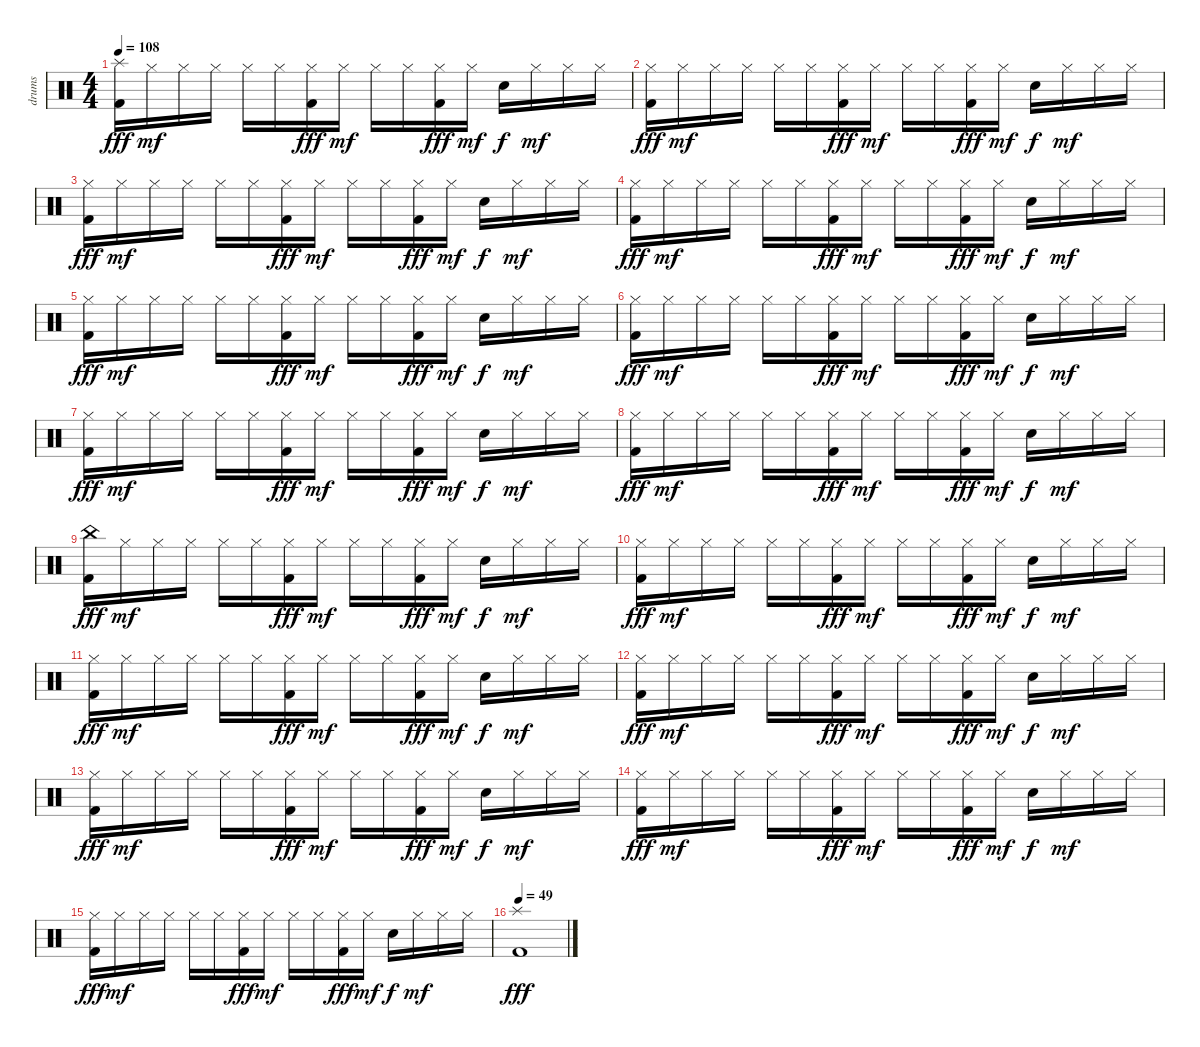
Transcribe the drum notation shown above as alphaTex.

\track ("drums" "drums") {instrument percussion}
\staff {score}
\articulation defaults
\ts (4 4)
\tempo 108
\clef neutral
\ks c
("Splash (hit)" "Kick (hit) 2").16{dy fff} "Hi-Hat (closed)".16{dy mf} "Hi-Hat (closed)".16 "Hi-Hat (closed)".16 "Hi-Hat (closed)".16 "Hi-Hat (closed)".16 ("Hi-Hat (closed)" "Kick (hit) 2").16{dy fff} "Hi-Hat (closed)".16{dy mf} "Hi-Hat (closed)".16 "Hi-Hat (closed)".16 ("Hi-Hat (closed)" "Kick (hit) 2").16{dy fff} "Hi-Hat (closed)".16{dy mf} "Snare (hit) 2".16{dy f} "Hi-Hat (closed)".16{dy mf} "Hi-Hat (closed)".16 "Hi-Hat (closed)".16 |
("Hi-Hat (closed)" "Kick (hit) 2").16{dy fff} "Hi-Hat (closed)".16{dy mf} "Hi-Hat (closed)".16 "Hi-Hat (closed)".16 "Hi-Hat (closed)".16 "Hi-Hat (closed)".16 ("Hi-Hat (closed)" "Kick (hit) 2").16{dy fff} "Hi-Hat (closed)".16{dy mf} "Hi-Hat (closed)".16 "Hi-Hat (closed)".16 ("Hi-Hat (closed)" "Kick (hit) 2").16{dy fff} "Hi-Hat (closed)".16{dy mf} "Snare (hit) 2".16{dy f} "Hi-Hat (closed)".16{dy mf} "Hi-Hat (closed)".16 "Hi-Hat (closed)".16 |
("Hi-Hat (closed)" "Kick (hit) 2").16{dy fff} "Hi-Hat (closed)".16{dy mf} "Hi-Hat (closed)".16 "Hi-Hat (closed)".16 "Hi-Hat (closed)".16 "Hi-Hat (closed)".16 ("Hi-Hat (closed)" "Kick (hit) 2").16{dy fff} "Hi-Hat (closed)".16{dy mf} "Hi-Hat (closed)".16 "Hi-Hat (closed)".16 ("Hi-Hat (closed)" "Kick (hit) 2").16{dy fff} "Hi-Hat (closed)".16{dy mf} "Snare (hit) 2".16{dy f} "Hi-Hat (closed)".16{dy mf} "Hi-Hat (closed)".16 "Hi-Hat (closed)".16 |
("Hi-Hat (closed)" "Kick (hit) 2").16{dy fff} "Hi-Hat (closed)".16{dy mf} "Hi-Hat (closed)".16 "Hi-Hat (closed)".16 "Hi-Hat (closed)".16 "Hi-Hat (closed)".16 ("Hi-Hat (closed)" "Kick (hit) 2").16{dy fff} "Hi-Hat (closed)".16{dy mf} "Hi-Hat (closed)".16 "Hi-Hat (closed)".16 ("Hi-Hat (closed)" "Kick (hit) 2").16{dy fff} "Hi-Hat (closed)".16{dy mf} "Snare (hit) 2".16{dy f} "Hi-Hat (closed)".16{dy mf} "Hi-Hat (closed)".16 "Hi-Hat (closed)".16 |
("Hi-Hat (closed)" "Kick (hit) 2").16{dy fff} "Hi-Hat (closed)".16{dy mf} "Hi-Hat (closed)".16 "Hi-Hat (closed)".16 "Hi-Hat (closed)".16 "Hi-Hat (closed)".16 ("Hi-Hat (closed)" "Kick (hit) 2").16{dy fff} "Hi-Hat (closed)".16{dy mf} "Hi-Hat (closed)".16 "Hi-Hat (closed)".16 ("Hi-Hat (closed)" "Kick (hit) 2").16{dy fff} "Hi-Hat (closed)".16{dy mf} "Snare (hit) 2".16{dy f} "Hi-Hat (closed)".16{dy mf} "Hi-Hat (closed)".16 "Hi-Hat (closed)".16 |
("Hi-Hat (closed)" "Kick (hit) 2").16{dy fff} "Hi-Hat (closed)".16{dy mf} "Hi-Hat (closed)".16 "Hi-Hat (closed)".16 "Hi-Hat (closed)".16 "Hi-Hat (closed)".16 ("Hi-Hat (closed)" "Kick (hit) 2").16{dy fff} "Hi-Hat (closed)".16{dy mf} "Hi-Hat (closed)".16 "Hi-Hat (closed)".16 ("Hi-Hat (closed)" "Kick (hit) 2").16{dy fff} "Hi-Hat (closed)".16{dy mf} "Snare (hit) 2".16{dy f} "Hi-Hat (closed)".16{dy mf} "Hi-Hat (closed)".16 "Hi-Hat (closed)".16 |
("Hi-Hat (closed)" "Kick (hit) 2").16{dy fff} "Hi-Hat (closed)".16{dy mf} "Hi-Hat (closed)".16 "Hi-Hat (closed)".16 "Hi-Hat (closed)".16 "Hi-Hat (closed)".16 ("Hi-Hat (closed)" "Kick (hit) 2").16{dy fff} "Hi-Hat (closed)".16{dy mf} "Hi-Hat (closed)".16 "Hi-Hat (closed)".16 ("Hi-Hat (closed)" "Kick (hit) 2").16{dy fff} "Hi-Hat (closed)".16{dy mf} "Snare (hit) 2".16{dy f} "Hi-Hat (closed)".16{dy mf} "Hi-Hat (closed)".16 "Hi-Hat (closed)".16 |
("Hi-Hat (closed)" "Kick (hit) 2").16{dy fff} "Hi-Hat (closed)".16{dy mf} "Hi-Hat (closed)".16 "Hi-Hat (closed)".16 "Hi-Hat (closed)".16 "Hi-Hat (closed)".16 ("Hi-Hat (closed)" "Kick (hit) 2").16{dy fff} "Hi-Hat (closed)".16{dy mf} "Hi-Hat (closed)".16 "Hi-Hat (closed)".16 ("Hi-Hat (closed)" "Kick (hit) 2").16{dy fff} "Hi-Hat (closed)".16{dy mf} "Snare (hit) 2".16{dy f} "Hi-Hat (closed)".16{dy mf} "Hi-Hat (closed)".16 "Hi-Hat (closed)".16 |
("China (hit)" "Kick (hit) 2").16{dy fff} "Hi-Hat (closed)".16{dy mf} "Hi-Hat (closed)".16 "Hi-Hat (closed)".16 "Hi-Hat (closed)".16 "Hi-Hat (closed)".16 ("Hi-Hat (closed)" "Kick (hit) 2").16{dy fff} "Hi-Hat (closed)".16{dy mf} "Hi-Hat (closed)".16 "Hi-Hat (closed)".16 ("Hi-Hat (closed)" "Kick (hit) 2").16{dy fff} "Hi-Hat (closed)".16{dy mf} "Snare (hit) 2".16{dy f} "Hi-Hat (closed)".16{dy mf} "Hi-Hat (closed)".16 "Hi-Hat (closed)".16 |
("Hi-Hat (closed)" "Kick (hit) 2").16{dy fff} "Hi-Hat (closed)".16{dy mf} "Hi-Hat (closed)".16 "Hi-Hat (closed)".16 "Hi-Hat (closed)".16 "Hi-Hat (closed)".16 ("Hi-Hat (closed)" "Kick (hit) 2").16{dy fff} "Hi-Hat (closed)".16{dy mf} "Hi-Hat (closed)".16 "Hi-Hat (closed)".16 ("Hi-Hat (closed)" "Kick (hit) 2").16{dy fff} "Hi-Hat (closed)".16{dy mf} "Snare (hit) 2".16{dy f} "Hi-Hat (closed)".16{dy mf} "Hi-Hat (closed)".16 "Hi-Hat (closed)".16 |
("Hi-Hat (closed)" "Kick (hit) 2").16{dy fff} "Hi-Hat (closed)".16{dy mf} "Hi-Hat (closed)".16 "Hi-Hat (closed)".16 "Hi-Hat (closed)".16 "Hi-Hat (closed)".16 ("Hi-Hat (closed)" "Kick (hit) 2").16{dy fff} "Hi-Hat (closed)".16{dy mf} "Hi-Hat (closed)".16 "Hi-Hat (closed)".16 ("Hi-Hat (closed)" "Kick (hit) 2").16{dy fff} "Hi-Hat (closed)".16{dy mf} "Snare (hit) 2".16{dy f} "Hi-Hat (closed)".16{dy mf} "Hi-Hat (closed)".16 "Hi-Hat (closed)".16 |
("Hi-Hat (closed)" "Kick (hit) 2").16{dy fff} "Hi-Hat (closed)".16{dy mf} "Hi-Hat (closed)".16 "Hi-Hat (closed)".16 "Hi-Hat (closed)".16 "Hi-Hat (closed)".16 ("Hi-Hat (closed)" "Kick (hit) 2").16{dy fff} "Hi-Hat (closed)".16{dy mf} "Hi-Hat (closed)".16 "Hi-Hat (closed)".16 ("Hi-Hat (closed)" "Kick (hit) 2").16{dy fff} "Hi-Hat (closed)".16{dy mf} "Snare (hit) 2".16{dy f} "Hi-Hat (closed)".16{dy mf} "Hi-Hat (closed)".16 "Hi-Hat (closed)".16 |
("Hi-Hat (closed)" "Kick (hit) 2").16{dy fff} "Hi-Hat (closed)".16{dy mf} "Hi-Hat (closed)".16 "Hi-Hat (closed)".16 "Hi-Hat (closed)".16 "Hi-Hat (closed)".16 ("Hi-Hat (closed)" "Kick (hit) 2").16{dy fff} "Hi-Hat (closed)".16{dy mf} "Hi-Hat (closed)".16 "Hi-Hat (closed)".16 ("Hi-Hat (closed)" "Kick (hit) 2").16{dy fff} "Hi-Hat (closed)".16{dy mf} "Snare (hit) 2".16{dy f} "Hi-Hat (closed)".16{dy mf} "Hi-Hat (closed)".16 "Hi-Hat (closed)".16 |
("Hi-Hat (closed)" "Kick (hit) 2").16{dy fff} "Hi-Hat (closed)".16{dy mf} "Hi-Hat (closed)".16 "Hi-Hat (closed)".16 "Hi-Hat (closed)".16 "Hi-Hat (closed)".16 ("Hi-Hat (closed)" "Kick (hit) 2").16{dy fff} "Hi-Hat (closed)".16{dy mf} "Hi-Hat (closed)".16 "Hi-Hat (closed)".16 ("Hi-Hat (closed)" "Kick (hit) 2").16{dy fff} "Hi-Hat (closed)".16{dy mf} "Snare (hit) 2".16{dy f} "Hi-Hat (closed)".16{dy mf} "Hi-Hat (closed)".16 "Hi-Hat (closed)".16 |
("Hi-Hat (closed)" "Kick (hit) 2").16{dy fff} "Hi-Hat (closed)".16{dy mf} "Hi-Hat (closed)".16 "Hi-Hat (closed)".16 "Hi-Hat (closed)".16 "Hi-Hat (closed)".16 ("Hi-Hat (closed)" "Kick (hit) 2").16{dy fff} "Hi-Hat (closed)".16{dy mf} "Hi-Hat (closed)".16 "Hi-Hat (closed)".16 ("Hi-Hat (closed)" "Kick (hit) 2").16{dy fff} "Hi-Hat (closed)".16{dy mf} "Snare (hit) 2".16{dy f} "Hi-Hat (closed)".16{dy mf} "Hi-Hat (closed)".16 "Hi-Hat (closed)".16 |
\tempo 49
("Splash (hit)" "Kick (hit) 2").1{dy fff}
